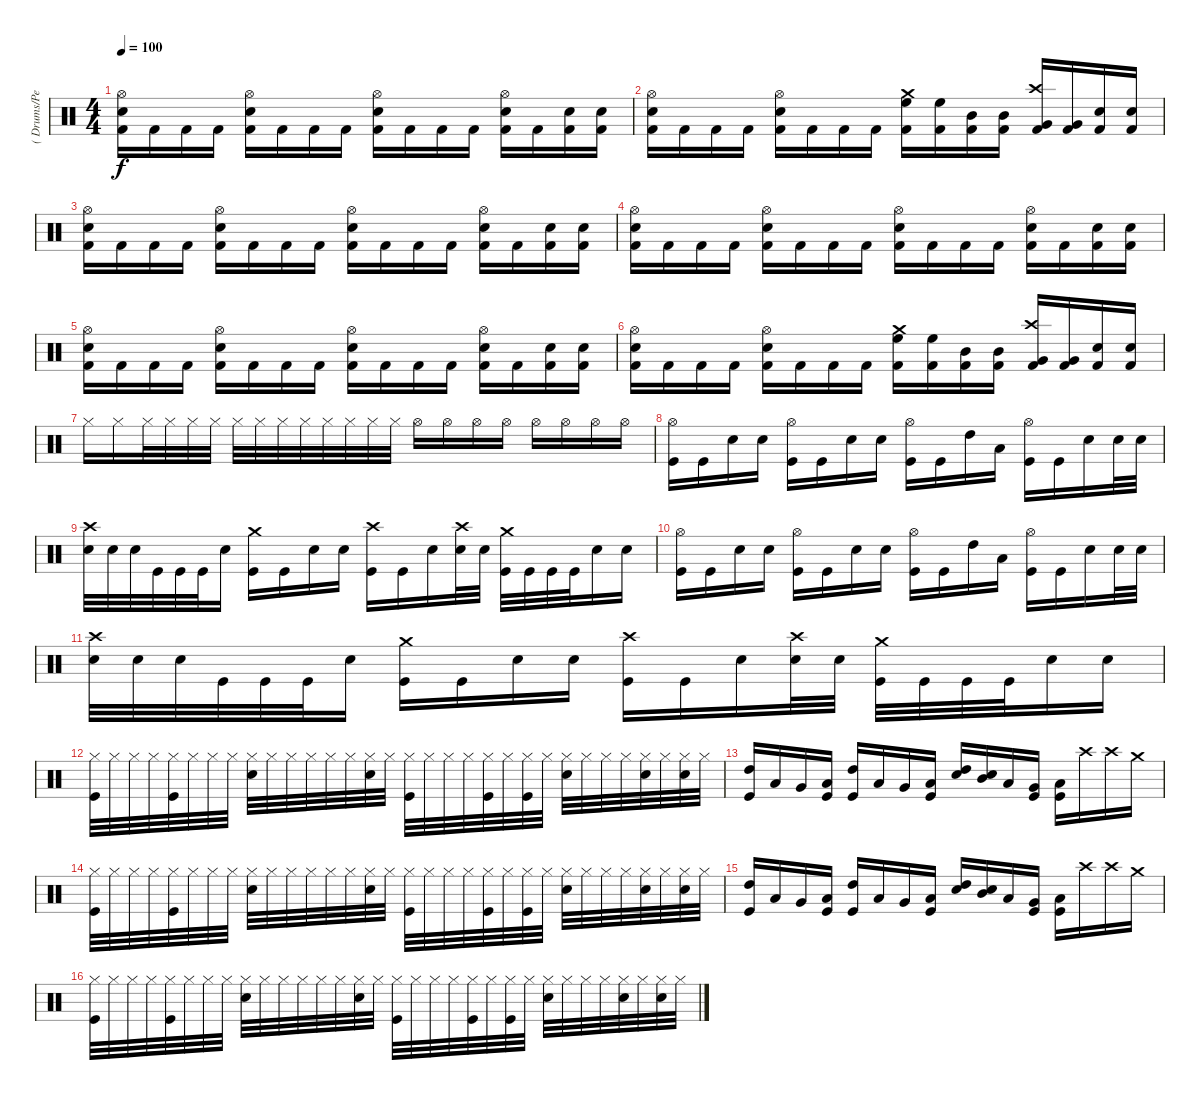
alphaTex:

\track ("( Drums/Percussion )" "( Drums/Pe") {instrument percussion}
\staff {score}
\articulation defaults
\ts (4 4)
\tempo 100
\clef neutral
\ks c
("Hi-Hat (open)" "Snare (hit) 2" "Kick (hit) 2").16{dy f} "Kick (hit) 2".16 "Kick (hit) 2".16 "Kick (hit) 2".16 ("Hi-Hat (open)" "Snare (hit) 2" "Kick (hit) 2").16 "Kick (hit) 2".16 "Kick (hit) 2".16 "Kick (hit) 2".16 ("Hi-Hat (open)" "Snare (hit) 2" "Kick (hit) 2").16 "Kick (hit) 2".16 "Kick (hit) 2".16 "Kick (hit) 2".16 ("Hi-Hat (open)" "Snare (hit) 2" "Kick (hit) 2").16 "Kick (hit) 2".16 ("Snare (hit) 2" "Kick (hit) 2").16 ("Snare (hit) 2" "Kick (hit) 2").16 |
("Hi-Hat (open)" "Snare (hit) 2" "Kick (hit) 2").16 "Kick (hit) 2".16 "Kick (hit) 2".16 "Kick (hit) 2".16 ("Hi-Hat (open)" "Snare (hit) 2" "Kick (hit) 2").16 "Kick (hit) 2".16 "Kick (hit) 2".16 "Kick (hit) 2".16 ("Crash medium (hit)" "High Floor Tom (hit)" "Kick (hit) 2").16 ("High Floor Tom (hit)" "Kick (hit) 2").16 ("Mid Tom (hit)" "Kick (hit) 2").16 ("Mid Tom (hit)" "Kick (hit) 2").16 ("Crash high (hit)" "Very Low Tom (hit)" "Kick (hit) 2").16 ("Very Low Tom (hit)" "Kick (hit) 2").16 ("Snare (hit) 2" "Kick (hit) 2").16 ("Snare (hit) 2" "Kick (hit) 2").16 |
("Hi-Hat (open)" "Snare (hit) 2" "Kick (hit) 2").16 "Kick (hit) 2".16 "Kick (hit) 2".16 "Kick (hit) 2".16 ("Hi-Hat (open)" "Snare (hit) 2" "Kick (hit) 2").16 "Kick (hit) 2".16 "Kick (hit) 2".16 "Kick (hit) 2".16 ("Hi-Hat (open)" "Snare (hit) 2" "Kick (hit) 2").16 "Kick (hit) 2".16 "Kick (hit) 2".16 "Kick (hit) 2".16 ("Hi-Hat (open)" "Snare (hit) 2" "Kick (hit) 2").16 "Kick (hit) 2".16 ("Snare (hit) 2" "Kick (hit) 2").16 ("Snare (hit) 2" "Kick (hit) 2").16 |
("Hi-Hat (open)" "Snare (hit) 2" "Kick (hit) 2").16 "Kick (hit) 2".16 "Kick (hit) 2".16 "Kick (hit) 2".16 ("Hi-Hat (open)" "Snare (hit) 2" "Kick (hit) 2").16 "Kick (hit) 2".16 "Kick (hit) 2".16 "Kick (hit) 2".16 ("Hi-Hat (open)" "Snare (hit) 2" "Kick (hit) 2").16 "Kick (hit) 2".16 "Kick (hit) 2".16 "Kick (hit) 2".16 ("Hi-Hat (open)" "Snare (hit) 2" "Kick (hit) 2").16 "Kick (hit) 2".16 ("Snare (hit) 2" "Kick (hit) 2").16 ("Snare (hit) 2" "Kick (hit) 2").16 |
("Hi-Hat (open)" "Snare (hit) 2" "Kick (hit) 2").16 "Kick (hit) 2".16 "Kick (hit) 2".16 "Kick (hit) 2".16 ("Hi-Hat (open)" "Snare (hit) 2" "Kick (hit) 2").16 "Kick (hit) 2".16 "Kick (hit) 2".16 "Kick (hit) 2".16 ("Hi-Hat (open)" "Snare (hit) 2" "Kick (hit) 2").16 "Kick (hit) 2".16 "Kick (hit) 2".16 "Kick (hit) 2".16 ("Hi-Hat (open)" "Snare (hit) 2" "Kick (hit) 2").16 "Kick (hit) 2".16 ("Snare (hit) 2" "Kick (hit) 2").16 ("Snare (hit) 2" "Kick (hit) 2").16 |
("Hi-Hat (open)" "Snare (hit) 2" "Kick (hit) 2").16 "Kick (hit) 2".16 "Kick (hit) 2".16 "Kick (hit) 2".16 ("Hi-Hat (open)" "Snare (hit) 2" "Kick (hit) 2").16 "Kick (hit) 2".16 "Kick (hit) 2".16 "Kick (hit) 2".16 ("Crash medium (hit)" "High Floor Tom (hit)" "Kick (hit) 2").16 ("High Floor Tom (hit)" "Kick (hit) 2").16 ("Mid Tom (hit)" "Kick (hit) 2").16 ("Mid Tom (hit)" "Kick (hit) 2").16 ("Crash high (hit)" "Very Low Tom (hit)" "Kick (hit) 2").16 ("Very Low Tom (hit)" "Kick (hit) 2").16 ("Snare (hit) 2" "Kick (hit) 2").16 ("Snare (hit) 2" "Kick (hit) 2").16 |
"Hi-Hat (closed)".16 "Hi-Hat (closed)".16 "Hi-Hat (closed)".32 "Hi-Hat (closed)".32 "Hi-Hat (closed)".32 "Hi-Hat (closed)".32 "Hi-Hat (closed)".32 "Hi-Hat (closed)".32 "Hi-Hat (closed)".32 "Hi-Hat (closed)".32 "Hi-Hat (closed)".32 "Hi-Hat (closed)".32 "Hi-Hat (closed)".32 "Hi-Hat (closed)".32 "Hi-Hat (open)".16 "Hi-Hat (open)".16 "Hi-Hat (open)".16 "Hi-Hat (open)".16 "Hi-Hat (open)".16 "Hi-Hat (open)".16 "Hi-Hat (open)".16 "Hi-Hat (open)".16 |
("Hi-Hat (open)" "Kick (hit)").16 "Kick (hit)".16 "Snare (hit) 2".16 "Snare (hit) 2".16 ("Hi-Hat (open)" "Kick (hit)").16 "Kick (hit)".16 "Snare (hit) 2".16 "Snare (hit) 2".16 ("Hi-Hat (open)" "Kick (hit)").16 "Kick (hit)".16 "High Tom (hit)".16 "Low Tom (hit)".16 ("Hi-Hat (open)" "Kick (hit)").16 "Kick (hit)".16 "Snare (hit) 2".16 "Snare (hit) 2".32 "Snare (hit) 2".32 |
("Crash high (hit)" "Snare (hit) 2").32 "Snare (hit) 2".32 "Snare (hit) 2".32 "Kick (hit)".32 "Kick (hit)".32 "Kick (hit)".32 "Snare (hit) 2".16 ("Crash medium (hit)" "Kick (hit)").16 "Kick (hit)".16 "Snare (hit) 2".16 "Snare (hit) 2".16 ("Crash high (hit)" "Kick (hit)").16 "Kick (hit)".16 "Snare (hit) 2".16 ("Crash high (hit)" "Snare (hit) 2").32 "Snare (hit) 2".32 ("Crash medium (hit)" "Kick (hit)").32 "Kick (hit)".32 "Kick (hit)".32 "Kick (hit)".32 "Snare (hit) 2".16 "Snare (hit) 2".16 |
("Hi-Hat (open)" "Kick (hit)").16 "Kick (hit)".16 "Snare (hit) 2".16 "Snare (hit) 2".16 ("Hi-Hat (open)" "Kick (hit)").16 "Kick (hit)".16 "Snare (hit) 2".16 "Snare (hit) 2".16 ("Hi-Hat (open)" "Kick (hit)").16 "Kick (hit)".16 "High Tom (hit)".16 "Low Tom (hit)".16 ("Hi-Hat (open)" "Kick (hit)").16 "Kick (hit)".16 "Snare (hit) 2".16 "Snare (hit) 2".32 "Snare (hit) 2".32 |
("Crash high (hit)" "Snare (hit) 2").32 "Snare (hit) 2".32 "Snare (hit) 2".32 "Kick (hit)".32 "Kick (hit)".32 "Kick (hit)".32 "Snare (hit) 2".16 ("Crash medium (hit)" "Kick (hit)").16 "Kick (hit)".16 "Snare (hit) 2".16 "Snare (hit) 2".16 ("Crash high (hit)" "Kick (hit)").16 "Kick (hit)".16 "Snare (hit) 2".16 ("Crash high (hit)" "Snare (hit) 2").32 "Snare (hit) 2".32 ("Crash medium (hit)" "Kick (hit)").32 "Kick (hit)".32 "Kick (hit)".32 "Kick (hit)".32 "Snare (hit) 2".16 "Snare (hit) 2".16 |
("Hi-Hat (closed)" "Kick (hit)").32 "Hi-Hat (closed)".32 "Hi-Hat (closed)".32 "Hi-Hat (closed)".32 ("Hi-Hat (closed)" "Kick (hit)").32 "Hi-Hat (closed)".32 "Hi-Hat (closed)".32 "Hi-Hat (closed)".32 ("Hi-Hat (closed)" "Snare (hit) 2").32 "Hi-Hat (closed)".32 "Hi-Hat (closed)".32 "Hi-Hat (closed)".32 "Hi-Hat (closed)".32 "Hi-Hat (closed)".32 ("Hi-Hat (closed)" "Snare (hit) 2").32 "Hi-Hat (closed)".32 ("Hi-Hat (closed)" "Kick (hit)").32 "Hi-Hat (closed)".32 "Hi-Hat (closed)".32 "Hi-Hat (closed)".32 ("Hi-Hat (closed)" "Kick (hit)").32 "Hi-Hat (closed)".32 ("Hi-Hat (closed)" "Kick (hit)").32 "Hi-Hat (closed)".32 ("Hi-Hat (closed)" "Snare (hit) 2").32 "Hi-Hat (closed)".32 "Hi-Hat (closed)".32 "Hi-Hat (closed)".32 ("Hi-Hat (closed)" "Snare (hit) 2").32 "Hi-Hat (closed)".32 ("Hi-Hat (closed)" "Snare (hit) 2").32 "Hi-Hat (closed)".32 |
("Kick (hit)" "High Tom (hit)").16 "Low Tom (hit)".16 "Very Low Tom (hit)".16 ("Kick (hit)" "Low Floor Tom (hit)").16 ("Kick (hit)" "High Tom (hit)").16 "Low Tom (hit)".16 "Very Low Tom (hit)".16 ("Kick (hit)" "Low Floor Tom (hit)").16 ("Snare (hit) 2" "High Tom (hit)").16 ("Snare (hit) 2" "Mid Tom (hit)").16 "Low Tom (hit)".16 ("Kick (hit)" "Very Low Tom (hit)").16 ("Kick (hit)" "Low Tom (hit)").16 "Crash high (hit)".16 "Crash high (hit)".16 "Crash medium (hit)".16 |
("Hi-Hat (closed)" "Kick (hit)").32 "Hi-Hat (closed)".32 "Hi-Hat (closed)".32 "Hi-Hat (closed)".32 ("Hi-Hat (closed)" "Kick (hit)").32 "Hi-Hat (closed)".32 "Hi-Hat (closed)".32 "Hi-Hat (closed)".32 ("Hi-Hat (closed)" "Snare (hit) 2").32 "Hi-Hat (closed)".32 "Hi-Hat (closed)".32 "Hi-Hat (closed)".32 "Hi-Hat (closed)".32 "Hi-Hat (closed)".32 ("Hi-Hat (closed)" "Snare (hit) 2").32 "Hi-Hat (closed)".32 ("Hi-Hat (closed)" "Kick (hit)").32 "Hi-Hat (closed)".32 "Hi-Hat (closed)".32 "Hi-Hat (closed)".32 ("Hi-Hat (closed)" "Kick (hit)").32 "Hi-Hat (closed)".32 ("Hi-Hat (closed)" "Kick (hit)").32 "Hi-Hat (closed)".32 ("Hi-Hat (closed)" "Snare (hit) 2").32 "Hi-Hat (closed)".32 "Hi-Hat (closed)".32 "Hi-Hat (closed)".32 ("Hi-Hat (closed)" "Snare (hit) 2").32 "Hi-Hat (closed)".32 ("Hi-Hat (closed)" "Snare (hit) 2").32 "Hi-Hat (closed)".32 |
("Kick (hit)" "High Tom (hit)").16 "Low Tom (hit)".16 "Very Low Tom (hit)".16 ("Kick (hit)" "Low Floor Tom (hit)").16 ("Kick (hit)" "High Tom (hit)").16 "Low Tom (hit)".16 "Very Low Tom (hit)".16 ("Kick (hit)" "Low Floor Tom (hit)").16 ("Snare (hit) 2" "High Tom (hit)").16 ("Snare (hit) 2" "Mid Tom (hit)").16 "Low Tom (hit)".16 ("Kick (hit)" "Very Low Tom (hit)").16 ("Kick (hit)" "Low Tom (hit)").16 "Crash high (hit)".16 "Crash high (hit)".16 "Crash medium (hit)".16 |
("Hi-Hat (closed)" "Kick (hit)").32 "Hi-Hat (closed)".32 "Hi-Hat (closed)".32 "Hi-Hat (closed)".32 ("Hi-Hat (closed)" "Kick (hit)").32 "Hi-Hat (closed)".32 "Hi-Hat (closed)".32 "Hi-Hat (closed)".32 ("Hi-Hat (closed)" "Snare (hit) 2").32 "Hi-Hat (closed)".32 "Hi-Hat (closed)".32 "Hi-Hat (closed)".32 "Hi-Hat (closed)".32 "Hi-Hat (closed)".32 ("Hi-Hat (closed)" "Snare (hit) 2").32 "Hi-Hat (closed)".32 ("Hi-Hat (closed)" "Kick (hit)").32 "Hi-Hat (closed)".32 "Hi-Hat (closed)".32 "Hi-Hat (closed)".32 ("Hi-Hat (closed)" "Kick (hit)").32 "Hi-Hat (closed)".32 ("Hi-Hat (closed)" "Kick (hit)").32 "Hi-Hat (closed)".32 ("Hi-Hat (closed)" "Snare (hit) 2").32 "Hi-Hat (closed)".32 "Hi-Hat (closed)".32 "Hi-Hat (closed)".32 ("Hi-Hat (closed)" "Snare (hit) 2").32 "Hi-Hat (closed)".32 ("Hi-Hat (closed)" "Snare (hit) 2").32 "Hi-Hat (closed)".32
